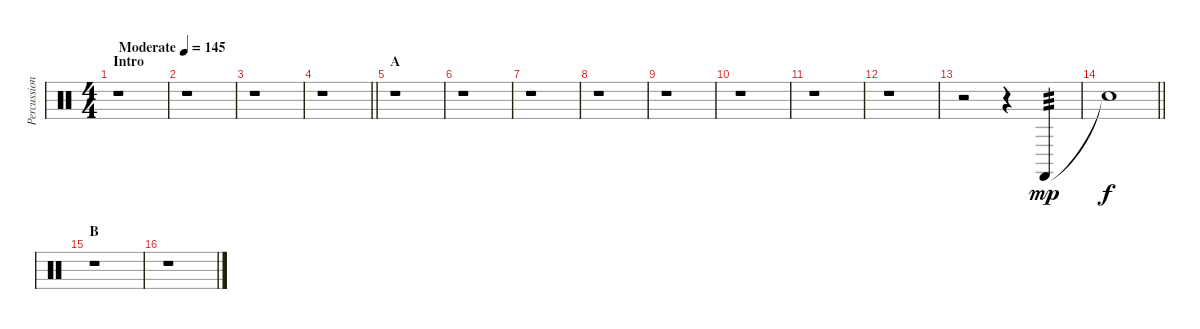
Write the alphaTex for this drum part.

\track ("Percussion" "Percussion") {instrument percussion}
\staff {score}
\articulation defaults
\ts (4 4)
\section ("" "Intro")
\tempo (145 "Moderate")
\clef neutral
\ks c
r.1{dy mp} |
r.1 |
r.1 |
\barLineRight lightlight
r.1 |
\section ("" "A")
r.1 |
r.1 |
r.1 |
r.1 |
r.1 |
r.1 |
r.1 |
r.1 |
r.2 r.4 "Castanets (hit)".4{tp 3} |
\barLineRight lightlight "Snare (hit)"{t}.1{dy f}
|
\section ("" "B")
r.1 |
r.1
